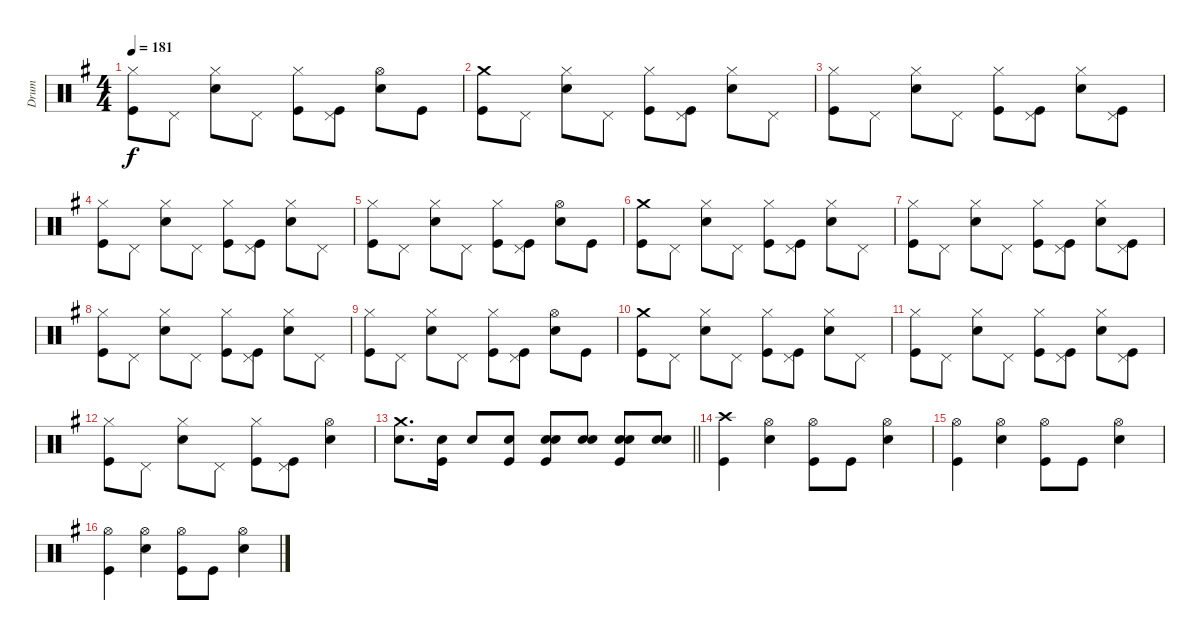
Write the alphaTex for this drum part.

\track ("Drum" "Drum") {instrument percussion}
\staff {score}
\articulation defaults
\ts (4 4)
\tempo 181
\clef neutral
\ks eminor
("Hi-Hat (closed)" "Kick (hit)").8{dy f} "Pedal Hi-Hat (hit)".8 ("Hi-Hat (closed)" "Snare (hit) 2").8 "Pedal Hi-Hat (hit)".8 ("Hi-Hat (closed)" "Kick (hit)").8 ("Pedal Hi-Hat (hit)" "Kick (hit)").8 ("Hi-Hat (open)" "Snare (hit) 2").8 "Kick (hit)".8 |
("Crash medium (hit)" "Kick (hit)").8 "Pedal Hi-Hat (hit)".8 ("Hi-Hat (closed)" "Snare (hit) 2").8 "Pedal Hi-Hat (hit)".8 ("Hi-Hat (closed)" "Kick (hit)").8 ("Pedal Hi-Hat (hit)" "Kick (hit)").8 ("Hi-Hat (closed)" "Snare (hit) 2").8 "Pedal Hi-Hat (hit)".8 |
("Hi-Hat (closed)" "Kick (hit)").8 "Pedal Hi-Hat (hit)".8 ("Hi-Hat (closed)" "Snare (hit) 2").8 "Pedal Hi-Hat (hit)".8 ("Hi-Hat (closed)" "Kick (hit)").8 ("Pedal Hi-Hat (hit)" "Kick (hit)").8 ("Hi-Hat (closed)" "Snare (hit) 2").8 ("Pedal Hi-Hat (hit)" "Kick (hit)").8 |
("Hi-Hat (closed)" "Kick (hit)").8 "Pedal Hi-Hat (hit)".8 ("Hi-Hat (closed)" "Snare (hit) 2").8 "Pedal Hi-Hat (hit)".8 ("Hi-Hat (closed)" "Kick (hit)").8 ("Pedal Hi-Hat (hit)" "Kick (hit)").8 ("Hi-Hat (closed)" "Snare (hit) 2").8 "Pedal Hi-Hat (hit)".8 |
("Hi-Hat (closed)" "Kick (hit)").8 "Pedal Hi-Hat (hit)".8 ("Hi-Hat (closed)" "Snare (hit) 2").8 "Pedal Hi-Hat (hit)".8 ("Hi-Hat (closed)" "Kick (hit)").8 ("Pedal Hi-Hat (hit)" "Kick (hit)").8 ("Hi-Hat (open)" "Snare (hit) 2").8 "Kick (hit)".8 |
("Crash medium (hit)" "Kick (hit)").8 "Pedal Hi-Hat (hit)".8 ("Hi-Hat (closed)" "Snare (hit) 2").8 "Pedal Hi-Hat (hit)".8 ("Hi-Hat (closed)" "Kick (hit)").8 ("Pedal Hi-Hat (hit)" "Kick (hit)").8 ("Hi-Hat (closed)" "Snare (hit) 2").8 "Pedal Hi-Hat (hit)".8 |
("Hi-Hat (closed)" "Kick (hit)").8 "Pedal Hi-Hat (hit)".8 ("Hi-Hat (closed)" "Snare (hit) 2").8 "Pedal Hi-Hat (hit)".8 ("Hi-Hat (closed)" "Kick (hit)").8 ("Pedal Hi-Hat (hit)" "Kick (hit)").8 ("Hi-Hat (closed)" "Snare (hit) 2").8 ("Pedal Hi-Hat (hit)" "Kick (hit)").8 |
("Hi-Hat (closed)" "Kick (hit)").8 "Pedal Hi-Hat (hit)".8 ("Hi-Hat (closed)" "Snare (hit) 2").8 "Pedal Hi-Hat (hit)".8 ("Hi-Hat (closed)" "Kick (hit)").8 ("Pedal Hi-Hat (hit)" "Kick (hit)").8 ("Hi-Hat (closed)" "Snare (hit) 2").8 "Pedal Hi-Hat (hit)".8 |
("Hi-Hat (closed)" "Kick (hit)").8 "Pedal Hi-Hat (hit)".8 ("Hi-Hat (closed)" "Snare (hit) 2").8 "Pedal Hi-Hat (hit)".8 ("Hi-Hat (closed)" "Kick (hit)").8 ("Pedal Hi-Hat (hit)" "Kick (hit)").8 ("Hi-Hat (open)" "Snare (hit) 2").8 "Kick (hit)".8 |
("Crash medium (hit)" "Kick (hit)").8 "Pedal Hi-Hat (hit)".8 ("Hi-Hat (closed)" "Snare (hit) 2").8 "Pedal Hi-Hat (hit)".8 ("Hi-Hat (closed)" "Kick (hit)").8 ("Pedal Hi-Hat (hit)" "Kick (hit)").8 ("Hi-Hat (closed)" "Snare (hit) 2").8 "Pedal Hi-Hat (hit)".8 |
("Hi-Hat (closed)" "Kick (hit)").8 "Pedal Hi-Hat (hit)".8 ("Hi-Hat (closed)" "Snare (hit) 2").8 "Pedal Hi-Hat (hit)".8 ("Hi-Hat (closed)" "Kick (hit)").8 ("Pedal Hi-Hat (hit)" "Kick (hit)").8 ("Hi-Hat (closed)" "Snare (hit) 2").8 ("Pedal Hi-Hat (hit)" "Kick (hit)").8 |
("Hi-Hat (closed)" "Kick (hit)").8 "Pedal Hi-Hat (hit)".8 ("Hi-Hat (closed)" "Snare (hit) 2").8 "Pedal Hi-Hat (hit)".8 ("Hi-Hat (closed)" "Kick (hit)").8 ("Pedal Hi-Hat (hit)" "Kick (hit)").8 ("Hi-Hat (open)" "Snare (hit) 2").4 |
\barLineRight lightlight
("Crash medium (hit)" "Snare (hit) 2").8{d} ("Snare (hit) 2" "Kick (hit)").16 "Snare (hit) 2".8 ("Snare (hit) 2" "Kick (hit)").8 ("Snare (hit) 2" "Snare (hit) 2" "Kick (hit)").8{bd 120} ("Snare (hit) 2" "Snare (hit) 2").8{bd 120} ("Snare (hit) 2" "Snare (hit) 2" "Kick (hit)").8{bd 60} ("Snare (hit) 2" "Snare (hit) 2").8{bd 120} |
("Crash high (hit)" "Kick (hit)").4 ("Hi-Hat (open)" "Snare (hit) 2").4 ("Hi-Hat (open)" "Kick (hit)").8 "Kick (hit)".8 ("Hi-Hat (open)" "Snare (hit) 2").4 |
("Hi-Hat (open)" "Kick (hit)").4 ("Hi-Hat (open)" "Snare (hit) 2").4 ("Hi-Hat (open)" "Kick (hit)").8 "Kick (hit)".8 ("Hi-Hat (open)" "Snare (hit) 2").4 |
("Hi-Hat (open)" "Kick (hit)").4 ("Hi-Hat (open)" "Snare (hit) 2").4 ("Hi-Hat (open)" "Kick (hit)").8 "Kick (hit)".8 ("Hi-Hat (open)" "Snare (hit) 2").4
